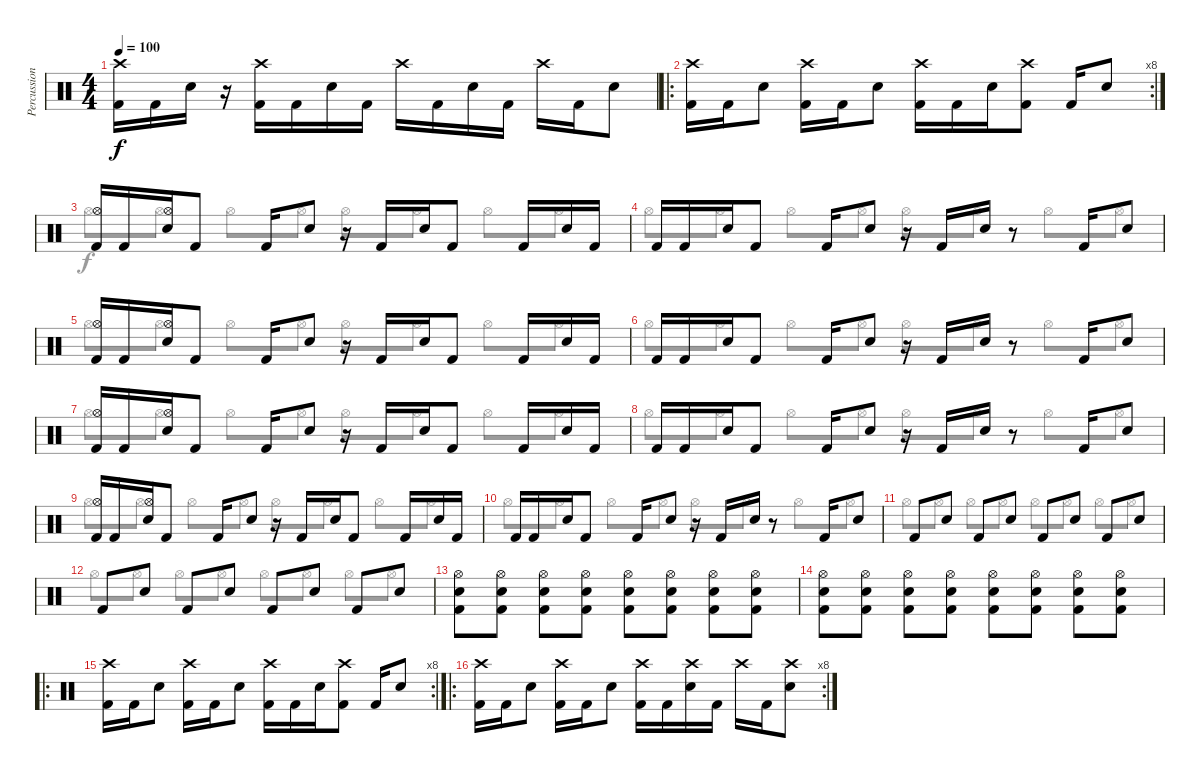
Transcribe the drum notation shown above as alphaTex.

\track ("Percussion" "Percussion") {instrument percussion}
\staff {score}
\articulation defaults
\voice
\ts (4 4)
\tempo 100
\clef neutral
\ks c
("Crash high (hit)" "Kick (hit) 2").16{dy f} "Kick (hit) 2".16 "Snare (hit) 2".16 r.16 ("Crash high (hit)" "Kick (hit) 2").16 "Kick (hit) 2".16 "Snare (hit) 2".16 "Kick (hit) 2".16 "Crash high (hit)".16 "Kick (hit) 2".16 "Snare (hit) 2".16 "Kick (hit) 2".16 "Crash high (hit)".16 "Kick (hit) 2".16 "Snare (hit) 2".8 |
\ro
\rc 8
("Crash high (hit)" "Kick (hit) 2").16 "Kick (hit) 2".16 "Snare (hit) 2".8 ("Crash high (hit)" "Kick (hit) 2").16 "Kick (hit) 2".16 "Snare (hit) 2".8 ("Crash high (hit)" "Kick (hit) 2").16 "Kick (hit) 2".16 "Snare (hit) 2".16 ("Crash high (hit)" "Kick (hit) 2").8 "Kick (hit) 2".16 "Snare (hit) 2".8 |
("Hi-Hat (open)" "Kick (hit) 2").16 "Kick (hit) 2".16 ("Hi-Hat (open)" "Snare (hit) 2").16 "Kick (hit) 2".8 "Kick (hit) 2".16 "Snare (hit) 2".8 r.16 "Kick (hit) 2".16 "Snare (hit) 2".16 "Kick (hit) 2".8 "Kick (hit) 2".16 "Snare (hit) 2".16 "Kick (hit) 2".16 |
"Kick (hit) 2".16 "Kick (hit) 2".16 "Snare (hit) 2".16 "Kick (hit) 2".8 "Kick (hit) 2".16 "Snare (hit) 2".8 r.16 "Kick (hit) 2".16 "Snare (hit) 2".16 r.8 "Kick (hit) 2".16 "Snare (hit) 2".8 |
("Hi-Hat (open)" "Kick (hit) 2").16 "Kick (hit) 2".16 ("Hi-Hat (open)" "Snare (hit) 2").16 "Kick (hit) 2".8 "Kick (hit) 2".16 "Snare (hit) 2".8 r.16 "Kick (hit) 2".16 "Snare (hit) 2".16 "Kick (hit) 2".8 "Kick (hit) 2".16 "Snare (hit) 2".16 "Kick (hit) 2".16 |
"Kick (hit) 2".16 "Kick (hit) 2".16 "Snare (hit) 2".16 "Kick (hit) 2".8 "Kick (hit) 2".16 "Snare (hit) 2".8 r.16 "Kick (hit) 2".16 "Snare (hit) 2".16 r.8 "Kick (hit) 2".16 "Snare (hit) 2".8 |
("Hi-Hat (open)" "Kick (hit) 2").16 "Kick (hit) 2".16 ("Hi-Hat (open)" "Snare (hit) 2").16 "Kick (hit) 2".8 "Kick (hit) 2".16 "Snare (hit) 2".8 r.16 "Kick (hit) 2".16 "Snare (hit) 2".16 "Kick (hit) 2".8 "Kick (hit) 2".16 "Snare (hit) 2".16 "Kick (hit) 2".16 |
"Kick (hit) 2".16 "Kick (hit) 2".16 "Snare (hit) 2".16 "Kick (hit) 2".8 "Kick (hit) 2".16 "Snare (hit) 2".8 r.16 "Kick (hit) 2".16 "Snare (hit) 2".16 r.8 "Kick (hit) 2".16 "Snare (hit) 2".8 |
("Hi-Hat (open)" "Kick (hit) 2").16 "Kick (hit) 2".16 ("Hi-Hat (open)" "Snare (hit) 2").16 "Kick (hit) 2".8 "Kick (hit) 2".16 "Snare (hit) 2".8 r.16 "Kick (hit) 2".16 "Snare (hit) 2".16 "Kick (hit) 2".8 "Kick (hit) 2".16 "Snare (hit) 2".16 "Kick (hit) 2".16 |
"Kick (hit) 2".16 "Kick (hit) 2".16 "Snare (hit) 2".16 "Kick (hit) 2".8 "Kick (hit) 2".16 "Snare (hit) 2".8 r.16 "Kick (hit) 2".16 "Snare (hit) 2".16 r.8 "Kick (hit) 2".16 "Snare (hit) 2".8 |
"Kick (hit) 2".8 "Snare (hit) 2".8 "Kick (hit) 2".8 "Snare (hit) 2".8 "Kick (hit) 2".8 "Snare (hit) 2".8 "Kick (hit) 2".8 "Snare (hit) 2".8 |
"Kick (hit) 2".8 "Snare (hit) 2".8 "Kick (hit) 2".8 "Snare (hit) 2".8 "Kick (hit) 2".8 "Snare (hit) 2".8 "Kick (hit) 2".8 "Snare (hit) 2".8 |
("Hi-Hat (open)" "Kick (hit) 2" "Snare (hit) 2").8 ("Hi-Hat (open)" "Kick (hit) 2" "Snare (hit) 2").8 ("Hi-Hat (open)" "Kick (hit) 2" "Snare (hit) 2").8 ("Hi-Hat (open)" "Kick (hit) 2" "Snare (hit) 2").8 ("Hi-Hat (open)" "Kick (hit) 2" "Snare (hit) 2").8 ("Hi-Hat (open)" "Kick (hit) 2" "Snare (hit) 2").8 ("Hi-Hat (open)" "Kick (hit) 2" "Snare (hit) 2").8 ("Hi-Hat (open)" "Kick (hit) 2" "Snare (hit) 2").8 |
("Hi-Hat (open)" "Kick (hit) 2" "Snare (hit) 2").8 ("Hi-Hat (open)" "Kick (hit) 2" "Snare (hit) 2").8 ("Hi-Hat (open)" "Kick (hit) 2" "Snare (hit) 2").8 ("Hi-Hat (open)" "Kick (hit) 2" "Snare (hit) 2").8 ("Hi-Hat (open)" "Kick (hit) 2" "Snare (hit) 2").8 ("Hi-Hat (open)" "Kick (hit) 2" "Snare (hit) 2").8 ("Hi-Hat (open)" "Kick (hit) 2" "Snare (hit) 2").8 ("Hi-Hat (open)" "Kick (hit) 2" "Snare (hit) 2").8 |
\ro
\rc 8
("Crash high (hit)" "Kick (hit) 2").16 "Kick (hit) 2".16 "Snare (hit) 2".8 ("Crash high (hit)" "Kick (hit) 2").16 "Kick (hit) 2".16 "Snare (hit) 2".8 ("Crash high (hit)" "Kick (hit) 2").16 "Kick (hit) 2".16 "Snare (hit) 2".16 ("Crash high (hit)" "Kick (hit) 2").8 "Kick (hit) 2".16 "Snare (hit) 2".8 |
\ro
\rc 8
("Crash high (hit)" "Kick (hit) 2").16 "Kick (hit) 2".16 "Snare (hit) 2".8 ("Crash high (hit)" "Kick (hit) 2").16 "Kick (hit) 2".16 "Snare (hit) 2".8 ("Crash high (hit)" "Kick (hit) 2").16 "Kick (hit) 2".16 ("Crash high (hit)" "Snare (hit) 2").16 "Kick (hit) 2".16 "Crash high (hit)".16 "Kick (hit) 2".16 ("Crash high (hit)" "Snare (hit) 2").8
\voice
\clef neutral
\ottava regular
\simile none
\ks c
|
|
"Hi-Hat (open)".8 "Hi-Hat (open)".8 "Hi-Hat (open)".8 "Hi-Hat (open)".8 "Hi-Hat (open)".8 "Hi-Hat (open)".8 "Hi-Hat (open)".8 "Hi-Hat (open)".8 |
"Hi-Hat (open)".8 "Hi-Hat (open)".8 "Hi-Hat (open)".8 "Hi-Hat (open)".8 "Hi-Hat (open)".8 "Hi-Hat (open)".8 "Hi-Hat (open)".8 "Hi-Hat (open)".8 |
"Hi-Hat (open)".8 "Hi-Hat (open)".8 "Hi-Hat (open)".8 "Hi-Hat (open)".8 "Hi-Hat (open)".8 "Hi-Hat (open)".8 "Hi-Hat (open)".8 "Hi-Hat (open)".8 |
"Hi-Hat (open)".8 "Hi-Hat (open)".8 "Hi-Hat (open)".8 "Hi-Hat (open)".8 "Hi-Hat (open)".8 "Hi-Hat (open)".8 "Hi-Hat (open)".8 "Hi-Hat (open)".8 |
"Hi-Hat (open)".8 "Hi-Hat (open)".8 "Hi-Hat (open)".8 "Hi-Hat (open)".8 "Hi-Hat (open)".8 "Hi-Hat (open)".8 "Hi-Hat (open)".8 "Hi-Hat (open)".8 |
"Hi-Hat (open)".8 "Hi-Hat (open)".8 "Hi-Hat (open)".8 "Hi-Hat (open)".8 "Hi-Hat (open)".8 "Hi-Hat (open)".8 "Hi-Hat (open)".8 "Hi-Hat (open)".8 |
"Hi-Hat (open)".8 "Hi-Hat (open)".8 "Hi-Hat (open)".8 "Hi-Hat (open)".8 "Hi-Hat (open)".8 "Hi-Hat (open)".8 "Hi-Hat (open)".8 "Hi-Hat (open)".8 |
"Hi-Hat (open)".8 "Hi-Hat (open)".8 "Hi-Hat (open)".8 "Hi-Hat (open)".8 "Hi-Hat (open)".8 "Hi-Hat (open)".8 "Hi-Hat (open)".8 "Hi-Hat (open)".8 |
"Hi-Hat (open)".8 "Hi-Hat (open)".8 "Hi-Hat (open)".8 "Hi-Hat (open)".8 "Hi-Hat (open)".8 "Hi-Hat (open)".8 "Hi-Hat (open)".8 "Hi-Hat (open)".8 |
"Hi-Hat (open)".8 "Hi-Hat (open)".8 "Hi-Hat (open)".8 "Hi-Hat (open)".8 "Hi-Hat (open)".8 "Hi-Hat (open)".8 "Hi-Hat (open)".8 "Hi-Hat (open)".8 |
|
|
|
